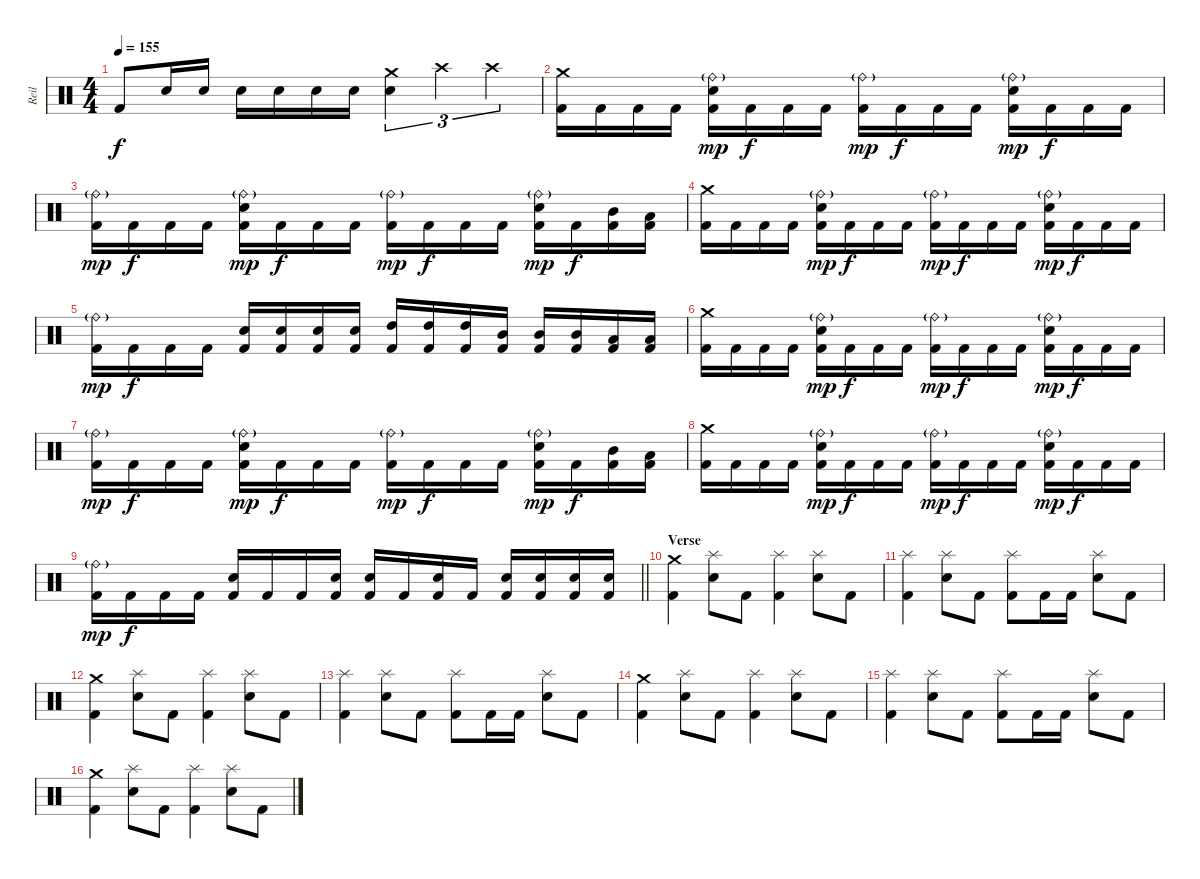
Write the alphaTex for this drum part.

\track ("Reil" "Reil") {instrument percussion}
\staff {score}
\articulation defaults
\ts (4 4)
\tempo 155
\clef neutral
\ks c "Kick (hit) 2".8{dy f} "Electric Snare (hit)".16 "Electric Snare (hit)".16 "Electric Snare (hit)".16 "Electric Snare (hit)".16 "Electric Snare (hit)".16 "Electric Snare (hit)".16
("Crash medium (hit)" "Electric Snare (hit)").4{tu (3 2)} "Crash high (hit)".4{tu (3 2)} "Crash high (hit)".4{tu (3 2)} |
("Crash medium (hit)" "Kick (hit) 2").16 "Kick (hit) 2".16 "Kick (hit) 2".16 "Kick (hit) 2".16 ("Ride (bell)"{g} "Electric Snare (hit)" "Kick (hit) 2").16{dy mp} "Kick (hit) 2".16{dy f} "Kick (hit) 2".16 "Kick (hit) 2".16 ("Ride (bell)"{g} "Kick (hit) 2").16{dy mp} "Kick (hit) 2".16{dy f} "Kick (hit) 2".16 "Kick (hit) 2".16 ("Ride (bell)"{g} "Electric Snare (hit)" "Kick (hit) 2").16{dy mp} "Kick (hit) 2".16{dy f} "Kick (hit) 2".16 "Kick (hit) 2".16 |
("Ride (bell)"{g} "Kick (hit) 2").16{dy mp} "Kick (hit) 2".16{dy f} "Kick (hit) 2".16 "Kick (hit) 2".16 ("Ride (bell)"{g} "Electric Snare (hit)" "Kick (hit) 2").16{dy mp} "Kick (hit) 2".16{dy f} "Kick (hit) 2".16 "Kick (hit) 2".16 ("Ride (bell)"{g} "Kick (hit) 2").16{dy mp} "Kick (hit) 2".16{dy f} "Kick (hit) 2".16 "Kick (hit) 2".16 ("Ride (bell)"{g} "Electric Snare (hit)" "Kick (hit) 2").16{dy mp} "Kick (hit) 2".16{dy f} ("Mid Tom (hit)" "Kick (hit) 2").16 ("Low Floor Tom (hit)" "Kick (hit) 2").16 |
("Crash medium (hit)" "Kick (hit) 2").16 "Kick (hit) 2".16 "Kick (hit) 2".16 "Kick (hit) 2".16 ("Ride (bell)"{g} "Electric Snare (hit)" "Kick (hit) 2").16{dy mp} "Kick (hit) 2".16{dy f} "Kick (hit) 2".16 "Kick (hit) 2".16 ("Ride (bell)"{g} "Kick (hit) 2").16{dy mp} "Kick (hit) 2".16{dy f} "Kick (hit) 2".16 "Kick (hit) 2".16 ("Ride (bell)"{g} "Electric Snare (hit)" "Kick (hit) 2").16{dy mp} "Kick (hit) 2".16{dy f} "Kick (hit) 2".16 "Kick (hit) 2".16 |
("Ride (bell)"{g} "Kick (hit) 2").16{dy mp} "Kick (hit) 2".16{dy f} "Kick (hit) 2".16 "Kick (hit) 2".16 ("Electric Snare (hit)" "Kick (hit) 2").16 ("Electric Snare (hit)" "Kick (hit) 2").16 ("Electric Snare (hit)" "Kick (hit) 2").16 ("Electric Snare (hit)" "Kick (hit) 2").16 ("High Tom (hit)" "Kick (hit) 2").16 ("High Tom (hit)" "Kick (hit) 2").16 ("High Tom (hit)" "Kick (hit) 2").16 ("Mid Tom (hit)" "Kick (hit) 2").16 ("Mid Tom (hit)" "Kick (hit) 2").16 ("Mid Tom (hit)" "Kick (hit) 2").16 ("Low Tom (hit)" "Kick (hit) 2").16 ("Low Tom (hit)" "Kick (hit) 2").16 |
("Crash medium (hit)" "Kick (hit) 2").16 "Kick (hit) 2".16 "Kick (hit) 2".16 "Kick (hit) 2".16 ("Ride (bell)"{g} "Electric Snare (hit)" "Kick (hit) 2").16{dy mp} "Kick (hit) 2".16{dy f} "Kick (hit) 2".16 "Kick (hit) 2".16 ("Ride (bell)"{g} "Kick (hit) 2").16{dy mp} "Kick (hit) 2".16{dy f} "Kick (hit) 2".16 "Kick (hit) 2".16 ("Ride (bell)"{g} "Electric Snare (hit)" "Kick (hit) 2").16{dy mp} "Kick (hit) 2".16{dy f} "Kick (hit) 2".16 "Kick (hit) 2".16 |
("Ride (bell)"{g} "Kick (hit) 2").16{dy mp} "Kick (hit) 2".16{dy f} "Kick (hit) 2".16 "Kick (hit) 2".16 ("Ride (bell)"{g} "Electric Snare (hit)" "Kick (hit) 2").16{dy mp} "Kick (hit) 2".16{dy f} "Kick (hit) 2".16 "Kick (hit) 2".16 ("Ride (bell)"{g} "Kick (hit) 2").16{dy mp} "Kick (hit) 2".16{dy f} "Kick (hit) 2".16 "Kick (hit) 2".16 ("Ride (bell)"{g} "Electric Snare (hit)" "Kick (hit) 2").16{dy mp} "Kick (hit) 2".16{dy f} ("Mid Tom (hit)" "Kick (hit) 2").16 ("Low Floor Tom (hit)" "Kick (hit) 2").16 |
("Crash medium (hit)" "Kick (hit) 2").16 "Kick (hit) 2".16 "Kick (hit) 2".16 "Kick (hit) 2".16 ("Ride (bell)"{g} "Electric Snare (hit)" "Kick (hit) 2").16{dy mp} "Kick (hit) 2".16{dy f} "Kick (hit) 2".16 "Kick (hit) 2".16 ("Ride (bell)"{g} "Kick (hit) 2").16{dy mp} "Kick (hit) 2".16{dy f} "Kick (hit) 2".16 "Kick (hit) 2".16 ("Ride (bell)"{g} "Electric Snare (hit)" "Kick (hit) 2").16{dy mp} "Kick (hit) 2".16{dy f} "Kick (hit) 2".16 "Kick (hit) 2".16 |
\barLineRight lightlight
("Ride (bell)"{g} "Kick (hit) 2").16{dy mp} "Kick (hit) 2".16{dy f} "Kick (hit) 2".16 "Kick (hit) 2".16 ("Electric Snare (hit)" "Kick (hit) 2").16 "Kick (hit) 2".16 "Kick (hit) 2".16 ("Electric Snare (hit)" "Kick (hit) 2").16 ("Electric Snare (hit)" "Kick (hit) 2").16 "Kick (hit) 2".16 ("Electric Snare (hit)" "Kick (hit) 2").16 "Kick (hit) 2".16 ("Electric Snare (hit)" "Kick (hit) 2").16 ("Electric Snare (hit)" "Kick (hit) 2").16 ("Electric Snare (hit)" "Kick (hit) 2").16 ("Electric Snare (hit)" "Kick (hit) 2").16 |
\section ("" "Verse")
("Crash medium (hit)" "Kick (hit) 2").4 ("Splash (hit)" "Electric Snare (hit)").8 "Kick (hit) 2".8 ("Splash (hit)" "Kick (hit) 2").4 ("Splash (hit)" "Electric Snare (hit)").8 "Kick (hit) 2".8 |
("Splash (hit)" "Kick (hit) 2").4 ("Splash (hit)" "Electric Snare (hit)").8 "Kick (hit) 2".8 ("Splash (hit)" "Kick (hit) 2").8 "Kick (hit) 2".16 "Kick (hit) 2".16 ("Splash (hit)" "Electric Snare (hit)").8 "Kick (hit) 2".8 |
("Crash medium (hit)" "Kick (hit) 2").4 ("Splash (hit)" "Electric Snare (hit)").8 "Kick (hit) 2".8 ("Splash (hit)" "Kick (hit) 2").4 ("Splash (hit)" "Electric Snare (hit)").8 "Kick (hit) 2".8 |
("Splash (hit)" "Kick (hit) 2").4 ("Splash (hit)" "Electric Snare (hit)").8 "Kick (hit) 2".8 ("Splash (hit)" "Kick (hit) 2").8 "Kick (hit) 2".16 "Kick (hit) 2".16 ("Splash (hit)" "Electric Snare (hit)").8 "Kick (hit) 2".8 |
("Crash medium (hit)" "Kick (hit) 2").4 ("Splash (hit)" "Electric Snare (hit)").8 "Kick (hit) 2".8 ("Splash (hit)" "Kick (hit) 2").4 ("Splash (hit)" "Electric Snare (hit)").8 "Kick (hit) 2".8 |
("Splash (hit)" "Kick (hit) 2").4 ("Splash (hit)" "Electric Snare (hit)").8 "Kick (hit) 2".8 ("Splash (hit)" "Kick (hit) 2").8 "Kick (hit) 2".16 "Kick (hit) 2".16 ("Splash (hit)" "Electric Snare (hit)").8 "Kick (hit) 2".8 |
("Crash medium (hit)" "Kick (hit) 2").4 ("Splash (hit)" "Electric Snare (hit)").8 "Kick (hit) 2".8 ("Splash (hit)" "Kick (hit) 2").4 ("Splash (hit)" "Electric Snare (hit)").8 "Kick (hit) 2".8
